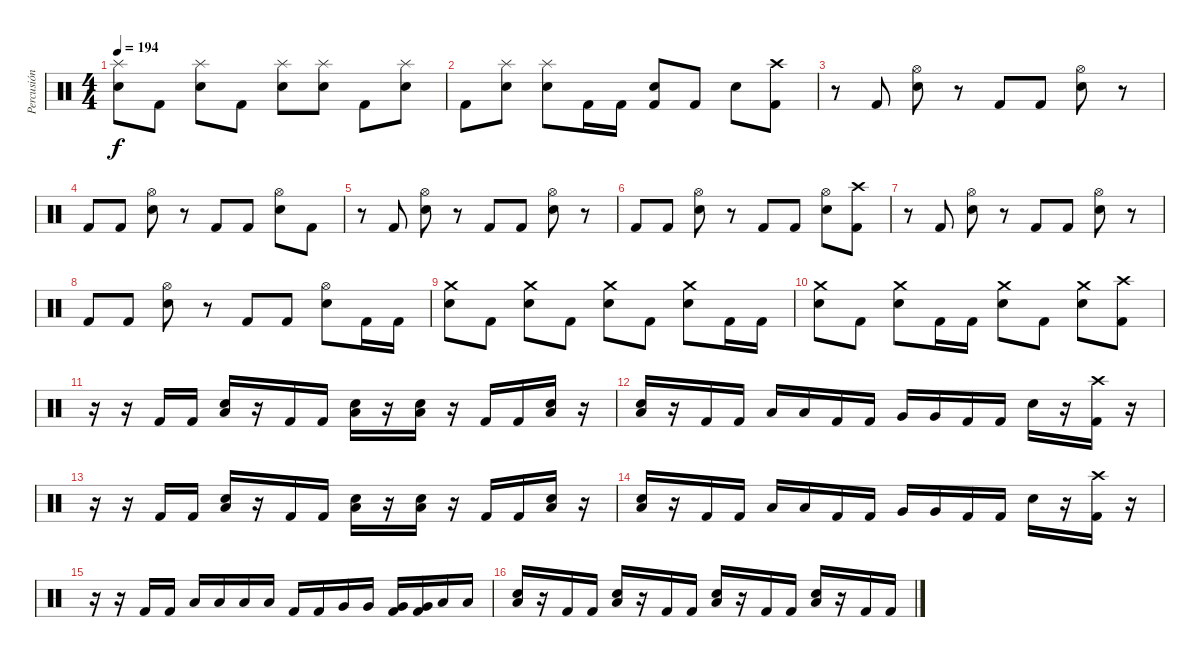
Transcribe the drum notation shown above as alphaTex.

\track ("Percusión" "Percusión") {instrument percussion}
\staff {score}
\articulation defaults
\ts (4 4)
\tempo 194
\clef neutral
\ks c
("Snare (hit) 2" "Splash (hit)").8{dy f} "Kick (hit) 2".8 ("Snare (hit) 2" "Splash (hit)").8 "Kick (hit) 2".8 ("Snare (hit) 2" "Splash (hit)").8 ("Snare (hit) 2" "Splash (hit)").8 "Kick (hit) 2".8 ("Snare (hit) 2" "Splash (hit)").8 |
"Kick (hit) 2".8 ("Snare (hit) 2" "Splash (hit)").8 ("Snare (hit) 2" "Splash (hit)").8 "Kick (hit) 2".16 "Kick (hit) 2".16 ("Kick (hit) 2" "Snare (hit) 2").8 "Kick (hit) 2".8 "Snare (hit) 2".8 ("Kick (hit) 2" "Crash high (hit)").8 |
r.8 "Kick (hit) 2".8 ("Snare (hit) 2" "Hi-Hat (open)").8 r.8 "Kick (hit) 2".8 "Kick (hit) 2".8 ("Snare (hit) 2" "Hi-Hat (open)").8 r.8 |
"Kick (hit) 2".8 "Kick (hit) 2".8 ("Snare (hit) 2" "Hi-Hat (open)").8 r.8 "Kick (hit) 2".8 "Kick (hit) 2".8 ("Snare (hit) 2" "Hi-Hat (open)").8 "Kick (hit) 2".8 |
r.8 "Kick (hit) 2".8 ("Snare (hit) 2" "Hi-Hat (open)").8 r.8 "Kick (hit) 2".8 "Kick (hit) 2".8 ("Snare (hit) 2" "Hi-Hat (open)").8 r.8 |
"Kick (hit) 2".8 "Kick (hit) 2".8 ("Snare (hit) 2" "Hi-Hat (open)").8 r.8 "Kick (hit) 2".8 "Kick (hit) 2".8 ("Snare (hit) 2" "Hi-Hat (open)").8 ("Kick (hit) 2" "Crash high (hit)").8 |
r.8 "Kick (hit) 2".8 ("Snare (hit) 2" "Hi-Hat (open)").8 r.8 "Kick (hit) 2".8 "Kick (hit) 2".8 ("Snare (hit) 2" "Hi-Hat (open)").8 r.8 |
"Kick (hit) 2".8 "Kick (hit) 2".8 ("Snare (hit) 2" "Hi-Hat (open)").8 r.8 "Kick (hit) 2".8 "Kick (hit) 2".8 ("Snare (hit) 2" "Hi-Hat (open)").8 "Kick (hit) 2".16 "Kick (hit) 2".16 |
("Snare (hit) 2" "Crash medium (hit)").8 "Kick (hit) 2".8 ("Snare (hit) 2" "Crash medium (hit)").8 "Kick (hit) 2".8 ("Snare (hit) 2" "Crash medium (hit)").8 "Kick (hit) 2".8 ("Snare (hit) 2" "Crash medium (hit)").8 "Kick (hit) 2".16 "Kick (hit) 2".16 |
("Snare (hit) 2" "Crash medium (hit)").8 "Kick (hit) 2".8 ("Snare (hit) 2" "Crash medium (hit)").8 "Kick (hit) 2".16 "Kick (hit) 2".16 ("Snare (hit) 2" "Crash medium (hit)").8 "Kick (hit) 2".8 ("Snare (hit) 2" "Crash medium (hit)").8 ("Kick (hit) 2" "Crash high (hit)").8 |
r.16 r.16 "Kick (hit) 2".16 "Kick (hit) 2".16 ("Low Tom (hit)" "Snare (hit) 2").16 r.16 "Kick (hit) 2".16 "Kick (hit) 2".16 ("Low Tom (hit)" "Snare (hit) 2").16 r.16 ("Low Tom (hit)" "Snare (hit) 2").16 r.16 "Kick (hit) 2".16 "Kick (hit) 2".16 ("Low Tom (hit)" "Snare (hit) 2").16 r.16 |
("Low Tom (hit)" "Snare (hit) 2").16 r.16 "Kick (hit) 2".16 "Kick (hit) 2".16 "Low Tom (hit)".16 "Low Tom (hit)".16 "Kick (hit) 2".16 "Kick (hit) 2".16 "Very Low Tom (hit)".16 "Very Low Tom (hit)".16 "Kick (hit) 2".16 "Kick (hit) 2".16 "Snare (hit) 2".16 r.16 ("Kick (hit) 2" "Crash high (hit)").16 r.16 |
r.16 r.16 "Kick (hit) 2".16 "Kick (hit) 2".16 ("Low Tom (hit)" "Snare (hit) 2").16 r.16 "Kick (hit) 2".16 "Kick (hit) 2".16 ("Low Tom (hit)" "Snare (hit) 2").16 r.16 ("Low Tom (hit)" "Snare (hit) 2").16 r.16 "Kick (hit) 2".16 "Kick (hit) 2".16 ("Low Tom (hit)" "Snare (hit) 2").16 r.16 |
("Low Tom (hit)" "Snare (hit) 2").16 r.16 "Kick (hit) 2".16 "Kick (hit) 2".16 "Low Tom (hit)".16 "Low Tom (hit)".16 "Kick (hit) 2".16 "Kick (hit) 2".16 "Very Low Tom (hit)".16 "Very Low Tom (hit)".16 "Kick (hit) 2".16 "Kick (hit) 2".16 "Snare (hit) 2".16 r.16 ("Kick (hit) 2" "Crash high (hit)").16 r.16 |
r.16 r.16 "Kick (hit) 2".16 "Kick (hit) 2".16 "Low Tom (hit)".16 "Low Tom (hit)".16 "Low Tom (hit)".16 "Low Tom (hit)".16 "Kick (hit) 2".16 "Kick (hit) 2".16 "Very Low Tom (hit)".16 "Very Low Tom (hit)".16 ("Kick (hit) 2" "Very Low Tom (hit)").16 ("Kick (hit) 2" "Very Low Tom (hit)").16 "Low Floor Tom (hit)".16 "Low Floor Tom (hit)".16 |
("Low Tom (hit)" "Snare (hit) 2").16 r.16 "Kick (hit) 2".16 "Kick (hit) 2".16 ("Low Tom (hit)" "Snare (hit) 2").16 r.16 "Kick (hit) 2".16 "Kick (hit) 2".16 ("Low Tom (hit)" "Snare (hit) 2").16 r.16 "Kick (hit) 2".16 "Kick (hit) 2".16 ("Low Tom (hit)" "Snare (hit) 2").16 r.16 "Kick (hit) 2".16 "Kick (hit) 2".16
